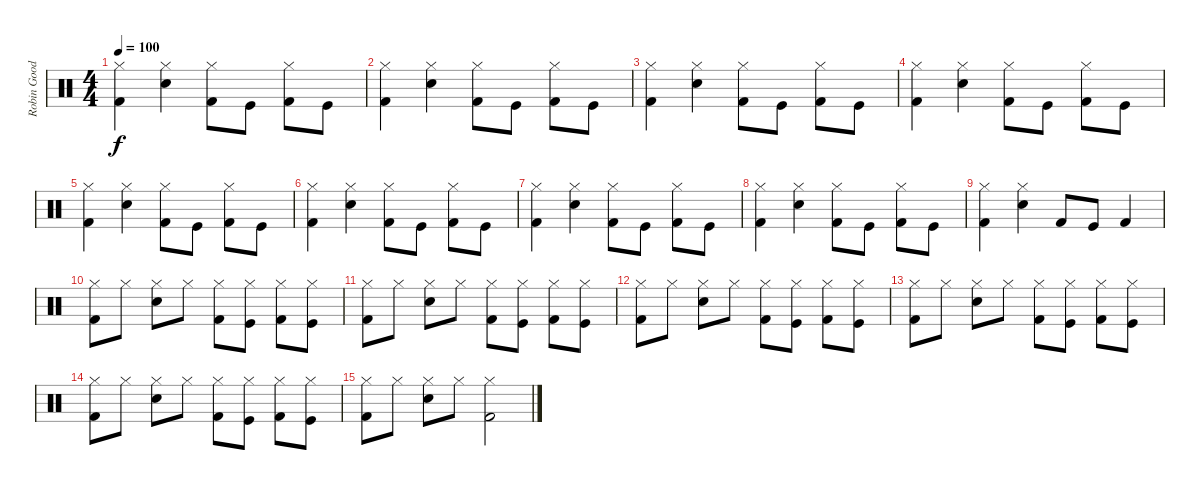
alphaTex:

\track ("Robin Goodridge - Drums " "Robin Good") {instrument percussion}
\staff {score}
\articulation defaults
\ts (4 4)
\tempo 100
\clef neutral
\ks c
("Hi-Hat (closed)" "Kick (hit) 2").4{dy f} ("Hi-Hat (closed)" "Snare (hit) 2").4 ("Hi-Hat (closed)" "Kick (hit) 2").8 "Kick (hit)".8 ("Hi-Hat (closed)" "Kick (hit) 2").8 "Kick (hit)".8 |
("Hi-Hat (closed)" "Kick (hit) 2").4 ("Hi-Hat (closed)" "Snare (hit) 2").4 ("Hi-Hat (closed)" "Kick (hit) 2").8 "Kick (hit)".8 ("Hi-Hat (closed)" "Kick (hit) 2").8 "Kick (hit)".8 |
("Hi-Hat (closed)" "Kick (hit) 2").4 ("Hi-Hat (closed)" "Snare (hit) 2").4 ("Hi-Hat (closed)" "Kick (hit) 2").8 "Kick (hit)".8 ("Hi-Hat (closed)" "Kick (hit) 2").8 "Kick (hit)".8 |
("Hi-Hat (closed)" "Kick (hit) 2").4 ("Hi-Hat (closed)" "Snare (hit) 2").4 ("Hi-Hat (closed)" "Kick (hit) 2").8 "Kick (hit)".8 ("Hi-Hat (closed)" "Kick (hit) 2").8 "Kick (hit)".8 |
("Hi-Hat (closed)" "Kick (hit) 2").4 ("Hi-Hat (closed)" "Snare (hit) 2").4 ("Hi-Hat (closed)" "Kick (hit) 2").8 "Kick (hit)".8 ("Hi-Hat (closed)" "Kick (hit) 2").8 "Kick (hit)".8 |
("Hi-Hat (closed)" "Kick (hit) 2").4 ("Hi-Hat (closed)" "Snare (hit) 2").4 ("Hi-Hat (closed)" "Kick (hit) 2").8 "Kick (hit)".8 ("Hi-Hat (closed)" "Kick (hit) 2").8 "Kick (hit)".8 |
("Hi-Hat (closed)" "Kick (hit) 2").4 ("Hi-Hat (closed)" "Snare (hit) 2").4 ("Hi-Hat (closed)" "Kick (hit) 2").8 "Kick (hit)".8 ("Hi-Hat (closed)" "Kick (hit) 2").8 "Kick (hit)".8 |
("Hi-Hat (closed)" "Kick (hit) 2").4 ("Hi-Hat (closed)" "Snare (hit) 2").4 ("Hi-Hat (closed)" "Kick (hit) 2").8 "Kick (hit)".8 ("Hi-Hat (closed)" "Kick (hit) 2").8 "Kick (hit)".8 |
("Hi-Hat (closed)" "Kick (hit) 2").4 ("Hi-Hat (closed)" "Snare (hit) 2").4 "Kick (hit) 2".8 "Kick (hit)".8 "Kick (hit) 2".4 |
("Hi-Hat (closed)" "Kick (hit) 2").8 "Hi-Hat (closed)".8 ("Hi-Hat (closed)" "Snare (hit) 2").8 "Hi-Hat (closed)".8 ("Hi-Hat (closed)" "Kick (hit) 2").8 ("Hi-Hat (closed)" "Kick (hit)").8 ("Hi-Hat (closed)" "Kick (hit) 2").8 ("Hi-Hat (closed)" "Kick (hit)").8 |
("Hi-Hat (closed)" "Kick (hit) 2").8 "Hi-Hat (closed)".8 ("Hi-Hat (closed)" "Snare (hit) 2").8 "Hi-Hat (closed)".8 ("Hi-Hat (closed)" "Kick (hit) 2").8 ("Hi-Hat (closed)" "Kick (hit)").8 ("Hi-Hat (closed)" "Kick (hit) 2").8 ("Hi-Hat (closed)" "Kick (hit)").8 |
("Hi-Hat (closed)" "Kick (hit) 2").8 "Hi-Hat (closed)".8 ("Hi-Hat (closed)" "Snare (hit) 2").8 "Hi-Hat (closed)".8 ("Hi-Hat (closed)" "Kick (hit) 2").8 ("Hi-Hat (closed)" "Kick (hit)").8 ("Hi-Hat (closed)" "Kick (hit) 2").8 ("Hi-Hat (closed)" "Kick (hit)").8 |
("Hi-Hat (closed)" "Kick (hit) 2").8 "Hi-Hat (closed)".8 ("Hi-Hat (closed)" "Snare (hit) 2").8 "Hi-Hat (closed)".8 ("Hi-Hat (closed)" "Kick (hit) 2").8 ("Hi-Hat (closed)" "Kick (hit)").8 ("Hi-Hat (closed)" "Kick (hit) 2").8 ("Hi-Hat (closed)" "Kick (hit)").8 |
("Hi-Hat (closed)" "Kick (hit) 2").8 "Hi-Hat (closed)".8 ("Hi-Hat (closed)" "Snare (hit) 2").8 "Hi-Hat (closed)".8 ("Hi-Hat (closed)" "Kick (hit) 2").8 ("Hi-Hat (closed)" "Kick (hit)").8 ("Hi-Hat (closed)" "Kick (hit) 2").8 ("Hi-Hat (closed)" "Kick (hit)").8 |
("Hi-Hat (closed)" "Kick (hit) 2").8 "Hi-Hat (closed)".8 ("Hi-Hat (closed)" "Snare (hit) 2").8 "Hi-Hat (closed)".8 ("Hi-Hat (closed)" "Kick (hit) 2").2
